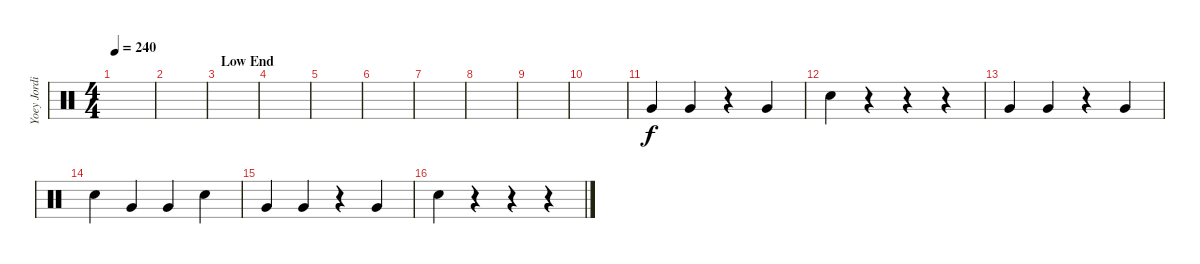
\track ("Yoey Jordison" "Yoey Jordi") {instrument percussion}
\staff {score}
\articulation defaults
\ts (4 4)
\tempo 240
\clef neutral
\ks c
|
|
\section ("" "Low End")
|
|
|
|
|
|
|
|
"Very Low Tom (hit)".4 "Very Low Tom (hit)".4 r.4 "Very Low Tom (hit)".4 |
"Snare (hit) 2".4 r.4 r.4 r.4 |
"Very Low Tom (hit)".4 "Very Low Tom (hit)".4 r.4 "Very Low Tom (hit)".4 |
"Snare (hit) 2".4 "Very Low Tom (hit)".4 "Very Low Tom (hit)".4 "Snare (hit) 2".4 |
"Very Low Tom (hit)".4 "Very Low Tom (hit)".4 r.4 "Very Low Tom (hit)".4 |
"Snare (hit) 2".4 r.4 r.4 r.4
